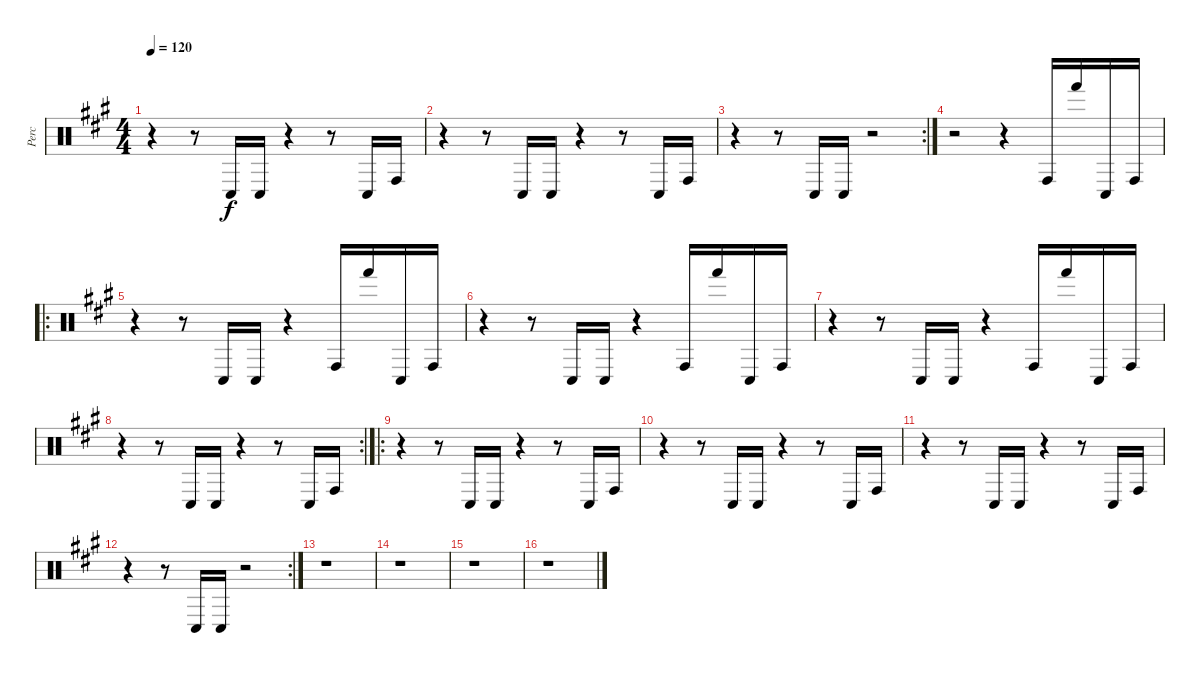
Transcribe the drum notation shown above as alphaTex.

\track ("Perc" "Perc") {instrument percussion}
\staff {score}
\articulation defaults
\ts (4 4)
\tempo 120
\clef neutral
\ks a
r.4{dy f} r.8 "Conga low (hit)".16 "Conga low (hit)".16 r.4 r.8 "Conga low (hit)".16 "Conga high (hit)".16 |
r.4 r.8 "Conga low (hit)".16 "Conga low (hit)".16 r.4 r.8 "Conga low (hit)".16 "Conga high (hit)".16 |
\rc 2
r.4 r.8 "Conga low (hit)".16 "Conga low (hit)".16 r.2 |
r.2 r.4 "Conga high (hit)".16 "Hand (hit)".16 "Conga low (hit)".16 "Conga high (hit)".16 |
\ro
r.4 r.8 "Conga low (hit)".16 "Conga low (hit)".16 r.4 "Conga high (hit)".16 "Hand (hit)".16 "Conga low (hit)".16 "Conga high (hit)".16 |
r.4 r.8 "Conga low (hit)".16 "Conga low (hit)".16 r.4 "Conga high (hit)".16 "Hand (hit)".16 "Conga low (hit)".16 "Conga high (hit)".16 |
r.4 r.8 "Conga low (hit)".16 "Conga low (hit)".16 r.4 "Conga high (hit)".16 "Hand (hit)".16 "Conga low (hit)".16 "Conga high (hit)".16 |
\rc 2
r.4 r.8 "Conga low (hit)".16 "Conga low (hit)".16 r.4 r.8 "Conga low (hit)".16 "Conga high (hit)".16 |
\ro
r.4 r.8 "Conga low (hit)".16 "Conga low (hit)".16 r.4 r.8 "Conga low (hit)".16 "Conga high (hit)".16 |
r.4 r.8 "Conga low (hit)".16 "Conga low (hit)".16 r.4 r.8 "Conga low (hit)".16 "Conga high (hit)".16 |
r.4 r.8 "Conga low (hit)".16 "Conga low (hit)".16 r.4 r.8 "Conga low (hit)".16 "Conga high (hit)".16 |
\rc 2
r.4 r.8 "Conga low (hit)".16 "Conga low (hit)".16 r.2 |
r.1 |
r.1 |
r.1 |
r.1
